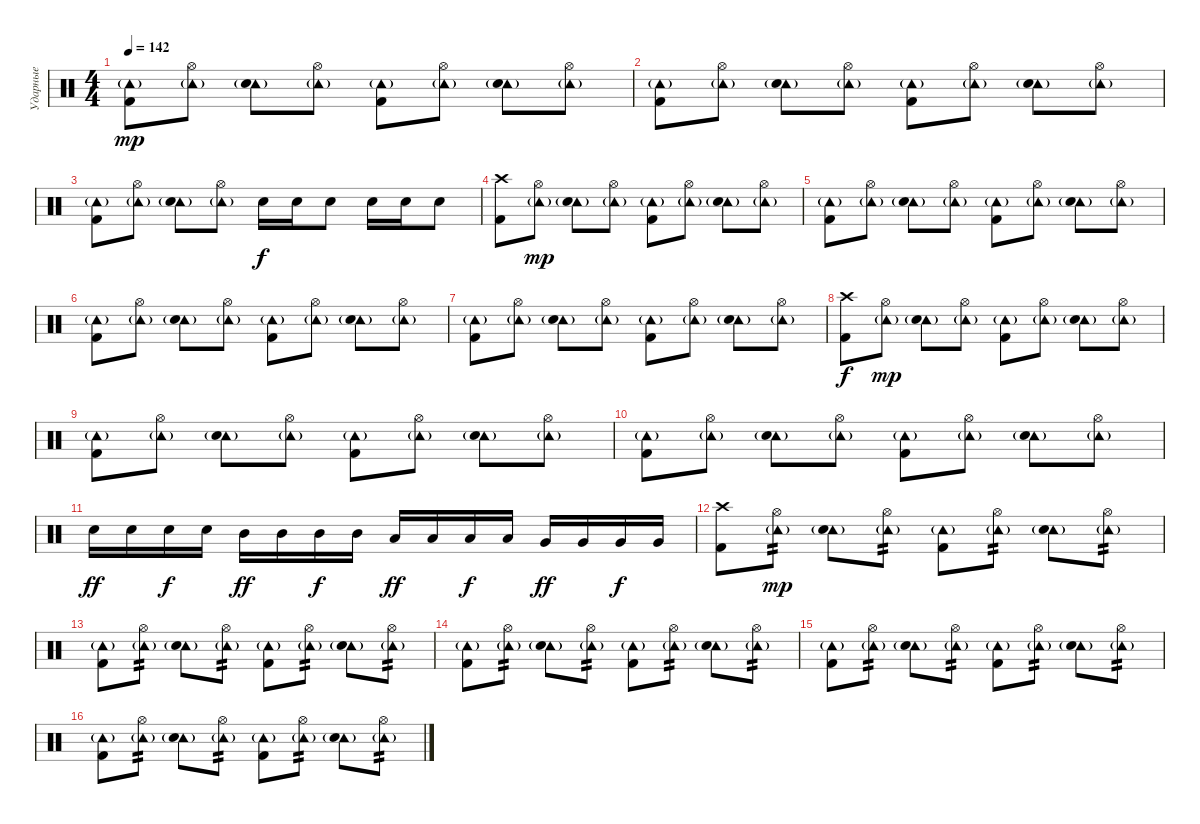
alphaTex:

\track ("Ударные" "Ударные") {instrument percussion}
\staff {score}
\articulation defaults
\ts (4 4)
\tempo 142
\clef neutral
\ks c
("Tambourine (hit)"{g} "Kick (hit) 2").8{dy mp} ("Tambourine (hit)"{g} "Hi-Hat (open)").8 ("Tambourine (hit)"{g} "Electric Snare (hit)").8 ("Tambourine (hit)"{g} "Hi-Hat (open)").8 ("Tambourine (hit)"{g} "Kick (hit) 2").8 ("Tambourine (hit)"{g} "Hi-Hat (open)").8 ("Tambourine (hit)"{g} "Electric Snare (hit)").8 ("Tambourine (hit)"{g} "Hi-Hat (open)").8 |
("Tambourine (hit)"{g} "Kick (hit) 2").8 ("Tambourine (hit)"{g} "Hi-Hat (open)").8 ("Tambourine (hit)"{g} "Electric Snare (hit)").8 ("Tambourine (hit)"{g} "Hi-Hat (open)").8 ("Tambourine (hit)"{g} "Kick (hit) 2").8 ("Tambourine (hit)"{g} "Hi-Hat (open)").8 ("Tambourine (hit)"{g} "Electric Snare (hit)").8 ("Tambourine (hit)"{g} "Hi-Hat (open)").8 |
("Tambourine (hit)"{g} "Kick (hit) 2").8 ("Tambourine (hit)"{g} "Hi-Hat (open)").8 ("Tambourine (hit)"{g} "Electric Snare (hit)").8 ("Tambourine (hit)"{g} "Hi-Hat (open)").8 "Electric Snare (hit)".16{dy f} "Electric Snare (hit)".16 "Electric Snare (hit)".8 "Electric Snare (hit)".16 "Electric Snare (hit)".16 "Electric Snare (hit)".8 |
("Crash high (hit)" "Kick (hit) 2").8 ("Tambourine (hit)"{g} "Hi-Hat (open)").8{dy mp} ("Tambourine (hit)"{g} "Electric Snare (hit)").8 ("Tambourine (hit)"{g} "Hi-Hat (open)").8 ("Tambourine (hit)"{g} "Kick (hit) 2").8 ("Tambourine (hit)"{g} "Hi-Hat (open)").8 ("Tambourine (hit)"{g} "Electric Snare (hit)").8 ("Tambourine (hit)"{g} "Hi-Hat (open)").8 |
("Tambourine (hit)"{g} "Kick (hit) 2").8 ("Tambourine (hit)"{g} "Hi-Hat (open)").8 ("Tambourine (hit)"{g} "Electric Snare (hit)").8 ("Tambourine (hit)"{g} "Hi-Hat (open)").8 ("Tambourine (hit)"{g} "Kick (hit) 2").8 ("Tambourine (hit)"{g} "Hi-Hat (open)").8 ("Tambourine (hit)"{g} "Electric Snare (hit)").8 ("Tambourine (hit)"{g} "Hi-Hat (open)").8 |
("Tambourine (hit)"{g} "Kick (hit) 2").8 ("Tambourine (hit)"{g} "Hi-Hat (open)").8 ("Tambourine (hit)"{g} "Electric Snare (hit)").8 ("Tambourine (hit)"{g} "Hi-Hat (open)").8 ("Tambourine (hit)"{g} "Kick (hit) 2").8 ("Tambourine (hit)"{g} "Hi-Hat (open)").8 ("Tambourine (hit)"{g} "Electric Snare (hit)").8 ("Tambourine (hit)"{g} "Hi-Hat (open)").8 |
("Tambourine (hit)"{g} "Kick (hit) 2").8 ("Tambourine (hit)"{g} "Hi-Hat (open)").8 ("Tambourine (hit)"{g} "Electric Snare (hit)").8 ("Tambourine (hit)"{g} "Hi-Hat (open)").8 ("Tambourine (hit)"{g} "Kick (hit) 2").8 ("Tambourine (hit)"{g} "Hi-Hat (open)").8 ("Tambourine (hit)"{g} "Electric Snare (hit)").8 ("Tambourine (hit)"{g} "Hi-Hat (open)").8 |
("Crash high (hit)" "Kick (hit) 2").8{dy f} ("Tambourine (hit)"{g} "Hi-Hat (open)").8{dy mp} ("Tambourine (hit)"{g} "Electric Snare (hit)").8 ("Tambourine (hit)"{g} "Hi-Hat (open)").8 ("Tambourine (hit)"{g} "Kick (hit) 2").8 ("Tambourine (hit)"{g} "Hi-Hat (open)").8 ("Tambourine (hit)"{g} "Electric Snare (hit)").8 ("Tambourine (hit)"{g} "Hi-Hat (open)").8 |
("Tambourine (hit)"{g} "Kick (hit) 2").8 ("Tambourine (hit)"{g} "Hi-Hat (open)").8 ("Tambourine (hit)"{g} "Electric Snare (hit)").8 ("Tambourine (hit)"{g} "Hi-Hat (open)").8 ("Tambourine (hit)"{g} "Kick (hit) 2").8 ("Tambourine (hit)"{g} "Hi-Hat (open)").8 ("Tambourine (hit)"{g} "Electric Snare (hit)").8 ("Tambourine (hit)"{g} "Hi-Hat (open)").8 |
("Tambourine (hit)"{g} "Kick (hit) 2").8 ("Tambourine (hit)"{g} "Hi-Hat (open)").8 ("Tambourine (hit)"{g} "Electric Snare (hit)").8 ("Tambourine (hit)"{g} "Hi-Hat (open)").8 ("Tambourine (hit)"{g} "Kick (hit) 2").8 ("Tambourine (hit)"{g} "Hi-Hat (open)").8 ("Tambourine (hit)"{g} "Electric Snare (hit)").8 ("Tambourine (hit)"{g} "Hi-Hat (open)").8 |
"Electric Snare (hit)".16{dy ff} "Electric Snare (hit)".16 "Electric Snare (hit)".16{dy f} "Electric Snare (hit)".16 "Mid Tom (hit)".16{dy ff} "Mid Tom (hit)".16 "Mid Tom (hit)".16{dy f} "Mid Tom (hit)".16 "Low Tom (hit)".16{dy ff} "Low Tom (hit)".16 "Low Tom (hit)".16{dy f} "Low Tom (hit)".16 "Very Low Tom (hit)".16{dy ff} "Very Low Tom (hit)".16 "Very Low Tom (hit)".16{dy f} "Very Low Tom (hit)".16 |
("Crash high (hit)" "Kick (hit) 2").8 ("Tambourine (hit)"{g} "Hi-Hat (open)").8{tp 2 dy mp} ("Tambourine (hit)"{g} "Electric Snare (hit)").8 ("Tambourine (hit)"{g} "Hi-Hat (open)").8{tp 2} ("Tambourine (hit)"{g} "Kick (hit) 2").8 ("Tambourine (hit)"{g} "Hi-Hat (open)").8{tp 2} ("Tambourine (hit)"{g} "Electric Snare (hit)").8 ("Tambourine (hit)"{g} "Hi-Hat (open)").8{tp 2} |
("Tambourine (hit)"{g} "Kick (hit) 2").8 ("Tambourine (hit)"{g} "Hi-Hat (open)").8{tp 2} ("Tambourine (hit)"{g} "Electric Snare (hit)").8 ("Tambourine (hit)"{g} "Hi-Hat (open)").8{tp 2} ("Tambourine (hit)"{g} "Kick (hit) 2").8 ("Tambourine (hit)"{g} "Hi-Hat (open)").8{tp 2} ("Tambourine (hit)"{g} "Electric Snare (hit)").8 ("Tambourine (hit)"{g} "Hi-Hat (open)").8{tp 2} |
("Tambourine (hit)"{g} "Kick (hit) 2").8 ("Tambourine (hit)"{g} "Hi-Hat (open)").8{tp 2} ("Tambourine (hit)"{g} "Electric Snare (hit)").8 ("Tambourine (hit)"{g} "Hi-Hat (open)").8{tp 2} ("Tambourine (hit)"{g} "Kick (hit) 2").8 ("Tambourine (hit)"{g} "Hi-Hat (open)").8{tp 2} ("Tambourine (hit)"{g} "Electric Snare (hit)").8 ("Tambourine (hit)"{g} "Hi-Hat (open)").8{tp 2} |
("Tambourine (hit)"{g} "Kick (hit) 2").8 ("Tambourine (hit)"{g} "Hi-Hat (open)").8{tp 2} ("Tambourine (hit)"{g} "Electric Snare (hit)").8 ("Tambourine (hit)"{g} "Hi-Hat (open)").8{tp 2} ("Tambourine (hit)"{g} "Kick (hit) 2").8 ("Tambourine (hit)"{g} "Hi-Hat (open)").8{tp 2} ("Tambourine (hit)"{g} "Electric Snare (hit)").8 ("Tambourine (hit)"{g} "Hi-Hat (open)").8{tp 2} |
("Tambourine (hit)"{g} "Kick (hit) 2").8 ("Tambourine (hit)"{g} "Hi-Hat (open)").8{tp 2} ("Tambourine (hit)"{g} "Electric Snare (hit)").8 ("Tambourine (hit)"{g} "Hi-Hat (open)").8{tp 2} ("Tambourine (hit)"{g} "Kick (hit) 2").8 ("Tambourine (hit)"{g} "Hi-Hat (open)").8{tp 2} ("Tambourine (hit)"{g} "Electric Snare (hit)").8 ("Tambourine (hit)"{g} "Hi-Hat (open)").8{tp 2}
